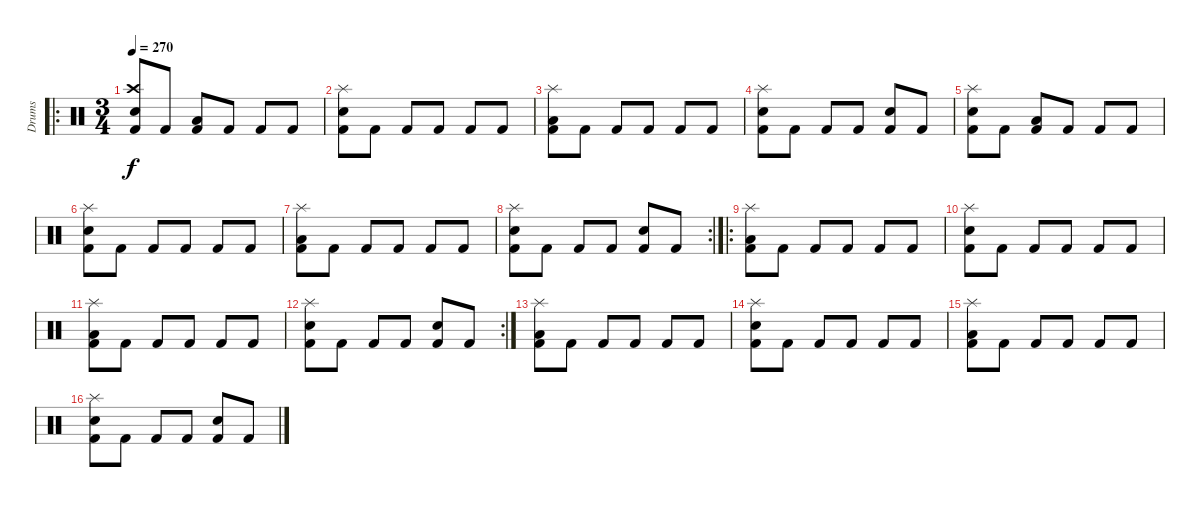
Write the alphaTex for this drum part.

\track ("Drums" "Drums") {instrument percussion}
\staff {score}
\articulation defaults
\ro
\ts (3 4)
\tempo 270
\clef neutral
\ks c
("Electric Snare (hit)" "Crash high (hit)" "Kick (hit) 2").8{dy f} "Kick (hit) 2".8 ("Low Tom (hit)" "Kick (hit) 2").8 "Kick (hit) 2".8 "Kick (hit) 2".8 "Kick (hit) 2".8 |
("Splash (hit)" "Electric Snare (hit)" "Kick (hit) 2").8 "Kick (hit) 2".8 "Kick (hit) 2".8 "Kick (hit) 2".8 "Kick (hit) 2".8 "Kick (hit) 2".8 |
("Splash (hit)" "Low Tom (hit)" "Kick (hit) 2").8 "Kick (hit) 2".8 "Kick (hit) 2".8 "Kick (hit) 2".8 "Kick (hit) 2".8 "Kick (hit) 2".8 |
("Splash (hit)" "Electric Snare (hit)" "Kick (hit) 2").8 "Kick (hit) 2".8 "Kick (hit) 2".8 "Kick (hit) 2".8 ("Electric Snare (hit)" "Kick (hit) 2").8 "Kick (hit) 2".8 |
("Splash (hit)" "Electric Snare (hit)" "Kick (hit) 2").8 "Kick (hit) 2".8 ("Low Tom (hit)" "Kick (hit) 2").8 "Kick (hit) 2".8 "Kick (hit) 2".8 "Kick (hit) 2".8 |
("Splash (hit)" "Electric Snare (hit)" "Kick (hit) 2").8 "Kick (hit) 2".8 "Kick (hit) 2".8 "Kick (hit) 2".8 "Kick (hit) 2".8 "Kick (hit) 2".8 |
("Splash (hit)" "Low Tom (hit)" "Kick (hit) 2").8 "Kick (hit) 2".8 "Kick (hit) 2".8 "Kick (hit) 2".8 "Kick (hit) 2".8 "Kick (hit) 2".8 |
\rc 2
("Splash (hit)" "Electric Snare (hit)" "Kick (hit) 2").8 "Kick (hit) 2".8 "Kick (hit) 2".8 "Kick (hit) 2".8 ("Electric Snare (hit)" "Kick (hit) 2").8 "Kick (hit) 2".8 |
\ro
("Splash (hit)" "Low Tom (hit)" "Kick (hit) 2").8 "Kick (hit) 2".8 "Kick (hit) 2".8 "Kick (hit) 2".8 "Kick (hit) 2".8 "Kick (hit) 2".8 |
("Splash (hit)" "Electric Snare (hit)" "Kick (hit) 2").8 "Kick (hit) 2".8 "Kick (hit) 2".8 "Kick (hit) 2".8 "Kick (hit) 2".8 "Kick (hit) 2".8 |
("Splash (hit)" "Low Tom (hit)" "Kick (hit) 2").8 "Kick (hit) 2".8 "Kick (hit) 2".8 "Kick (hit) 2".8 "Kick (hit) 2".8 "Kick (hit) 2".8 |
\rc 2
("Splash (hit)" "Electric Snare (hit)" "Kick (hit) 2").8 "Kick (hit) 2".8 "Kick (hit) 2".8 "Kick (hit) 2".8 ("Electric Snare (hit)" "Kick (hit) 2").8 "Kick (hit) 2".8 |
("Splash (hit)" "Low Tom (hit)" "Kick (hit) 2").8 "Kick (hit) 2".8 "Kick (hit) 2".8 "Kick (hit) 2".8 "Kick (hit) 2".8 "Kick (hit) 2".8 |
("Splash (hit)" "Electric Snare (hit)" "Kick (hit) 2").8 "Kick (hit) 2".8 "Kick (hit) 2".8 "Kick (hit) 2".8 "Kick (hit) 2".8 "Kick (hit) 2".8 |
("Splash (hit)" "Low Tom (hit)" "Kick (hit) 2").8 "Kick (hit) 2".8 "Kick (hit) 2".8 "Kick (hit) 2".8 "Kick (hit) 2".8 "Kick (hit) 2".8 |
("Splash (hit)" "Electric Snare (hit)" "Kick (hit) 2").8 "Kick (hit) 2".8 "Kick (hit) 2".8 "Kick (hit) 2".8 ("Electric Snare (hit)" "Kick (hit) 2").8 "Kick (hit) 2".8
